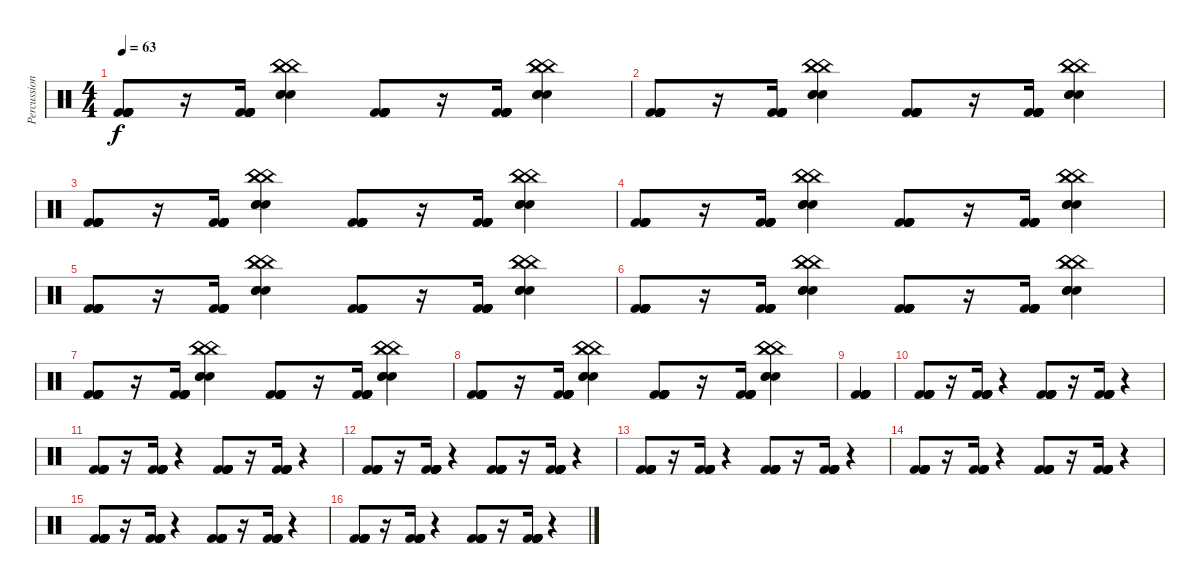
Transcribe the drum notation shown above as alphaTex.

\track ("Percussion" "Percussion") {instrument percussion}
\staff {score}
\articulation defaults
\ts (4 4)
\tempo 63
\clef neutral
\ks c
("Kick (hit) 2" "Kick (hit) 2" "Kick (hit) 2" "Kick (hit) 2" "Kick (hit) 2" "Kick (hit) 2").8{dy f} r.16 ("Kick (hit) 2" "Kick (hit) 2" "Kick (hit) 2" "Kick (hit) 2" "Kick (hit) 2" "Kick (hit) 2").16 ("China (hit)" "Snare (hit) 2" "China (hit)" "Snare (hit) 2" "China (hit)" "Snare (hit) 2").4 ("Kick (hit) 2" "Kick (hit) 2" "Kick (hit) 2" "Kick (hit) 2" "Kick (hit) 2" "Kick (hit) 2").8 r.16 ("Kick (hit) 2" "Kick (hit) 2" "Kick (hit) 2" "Kick (hit) 2" "Kick (hit) 2" "Kick (hit) 2").16 ("China (hit)" "Snare (hit) 2" "China (hit)" "Snare (hit) 2" "China (hit)" "Snare (hit) 2").4 |
("Kick (hit) 2" "Kick (hit) 2" "Kick (hit) 2" "Kick (hit) 2" "Kick (hit) 2" "Kick (hit) 2").8 r.16 ("Kick (hit) 2" "Kick (hit) 2" "Kick (hit) 2" "Kick (hit) 2" "Kick (hit) 2" "Kick (hit) 2").16 ("China (hit)" "Snare (hit) 2" "China (hit)" "Snare (hit) 2" "China (hit)" "Snare (hit) 2").4 ("Kick (hit) 2" "Kick (hit) 2" "Kick (hit) 2" "Kick (hit) 2" "Kick (hit) 2" "Kick (hit) 2").8 r.16 ("Kick (hit) 2" "Kick (hit) 2" "Kick (hit) 2" "Kick (hit) 2" "Kick (hit) 2" "Kick (hit) 2").16 ("China (hit)" "Snare (hit) 2" "China (hit)" "Snare (hit) 2" "China (hit)" "Snare (hit) 2").4 |
("Kick (hit) 2" "Kick (hit) 2" "Kick (hit) 2" "Kick (hit) 2" "Kick (hit) 2" "Kick (hit) 2").8 r.16 ("Kick (hit) 2" "Kick (hit) 2" "Kick (hit) 2" "Kick (hit) 2" "Kick (hit) 2" "Kick (hit) 2").16 ("China (hit)" "Snare (hit) 2" "China (hit)" "Snare (hit) 2" "China (hit)" "Snare (hit) 2").4 ("Kick (hit) 2" "Kick (hit) 2" "Kick (hit) 2" "Kick (hit) 2" "Kick (hit) 2" "Kick (hit) 2").8 r.16 ("Kick (hit) 2" "Kick (hit) 2" "Kick (hit) 2" "Kick (hit) 2" "Kick (hit) 2" "Kick (hit) 2").16 ("China (hit)" "Snare (hit) 2" "China (hit)" "Snare (hit) 2" "China (hit)" "Snare (hit) 2").4 |
("Kick (hit) 2" "Kick (hit) 2" "Kick (hit) 2" "Kick (hit) 2" "Kick (hit) 2" "Kick (hit) 2").8 r.16 ("Kick (hit) 2" "Kick (hit) 2" "Kick (hit) 2" "Kick (hit) 2" "Kick (hit) 2" "Kick (hit) 2").16 ("China (hit)" "Snare (hit) 2" "China (hit)" "Snare (hit) 2" "China (hit)" "Snare (hit) 2").4 ("Kick (hit) 2" "Kick (hit) 2" "Kick (hit) 2" "Kick (hit) 2" "Kick (hit) 2" "Kick (hit) 2").8 r.16 ("Kick (hit) 2" "Kick (hit) 2" "Kick (hit) 2" "Kick (hit) 2" "Kick (hit) 2" "Kick (hit) 2").16 ("China (hit)" "Snare (hit) 2" "China (hit)" "Snare (hit) 2" "China (hit)" "Snare (hit) 2").4 |
("Kick (hit) 2" "Kick (hit) 2" "Kick (hit) 2" "Kick (hit) 2" "Kick (hit) 2" "Kick (hit) 2").8 r.16 ("Kick (hit) 2" "Kick (hit) 2" "Kick (hit) 2" "Kick (hit) 2" "Kick (hit) 2" "Kick (hit) 2").16 ("China (hit)" "Snare (hit) 2" "China (hit)" "Snare (hit) 2" "China (hit)" "Snare (hit) 2").4 ("Kick (hit) 2" "Kick (hit) 2" "Kick (hit) 2" "Kick (hit) 2" "Kick (hit) 2" "Kick (hit) 2").8 r.16 ("Kick (hit) 2" "Kick (hit) 2" "Kick (hit) 2" "Kick (hit) 2" "Kick (hit) 2" "Kick (hit) 2").16 ("China (hit)" "Snare (hit) 2" "China (hit)" "Snare (hit) 2" "China (hit)" "Snare (hit) 2").4 |
("Kick (hit) 2" "Kick (hit) 2" "Kick (hit) 2" "Kick (hit) 2" "Kick (hit) 2" "Kick (hit) 2").8 r.16 ("Kick (hit) 2" "Kick (hit) 2" "Kick (hit) 2" "Kick (hit) 2" "Kick (hit) 2" "Kick (hit) 2").16 ("China (hit)" "Snare (hit) 2" "China (hit)" "Snare (hit) 2" "China (hit)" "Snare (hit) 2").4 ("Kick (hit) 2" "Kick (hit) 2" "Kick (hit) 2" "Kick (hit) 2" "Kick (hit) 2" "Kick (hit) 2").8 r.16 ("Kick (hit) 2" "Kick (hit) 2" "Kick (hit) 2" "Kick (hit) 2" "Kick (hit) 2" "Kick (hit) 2").16 ("China (hit)" "Snare (hit) 2" "China (hit)" "Snare (hit) 2" "China (hit)" "Snare (hit) 2").4 |
("Kick (hit) 2" "Kick (hit) 2" "Kick (hit) 2" "Kick (hit) 2" "Kick (hit) 2" "Kick (hit) 2").8 r.16 ("Kick (hit) 2" "Kick (hit) 2" "Kick (hit) 2" "Kick (hit) 2" "Kick (hit) 2" "Kick (hit) 2").16 ("China (hit)" "Snare (hit) 2" "China (hit)" "Snare (hit) 2" "China (hit)" "Snare (hit) 2").4 ("Kick (hit) 2" "Kick (hit) 2" "Kick (hit) 2" "Kick (hit) 2" "Kick (hit) 2" "Kick (hit) 2").8 r.16 ("Kick (hit) 2" "Kick (hit) 2" "Kick (hit) 2" "Kick (hit) 2" "Kick (hit) 2" "Kick (hit) 2").16 ("China (hit)" "Snare (hit) 2" "China (hit)" "Snare (hit) 2" "China (hit)" "Snare (hit) 2").4 |
("Kick (hit) 2" "Kick (hit) 2" "Kick (hit) 2" "Kick (hit) 2" "Kick (hit) 2" "Kick (hit) 2").8 r.16 ("Kick (hit) 2" "Kick (hit) 2" "Kick (hit) 2" "Kick (hit) 2" "Kick (hit) 2" "Kick (hit) 2").16 ("China (hit)" "Snare (hit) 2" "China (hit)" "Snare (hit) 2" "China (hit)" "Snare (hit) 2").4 ("Kick (hit) 2" "Kick (hit) 2" "Kick (hit) 2" "Kick (hit) 2" "Kick (hit) 2" "Kick (hit) 2").8 r.16 ("Kick (hit) 2" "Kick (hit) 2" "Kick (hit) 2" "Kick (hit) 2" "Kick (hit) 2" "Kick (hit) 2").16 ("China (hit)" "Snare (hit) 2" "China (hit)" "Snare (hit) 2" "China (hit)" "Snare (hit) 2").4 |
("Kick (hit) 2" "Kick (hit) 2" "Kick (hit) 2" "Kick (hit) 2" "Kick (hit) 2" "Kick (hit) 2").4 |
("Kick (hit) 2" "Kick (hit) 2" "Kick (hit) 2" "Kick (hit) 2" "Kick (hit) 2" "Kick (hit) 2").8 r.16 ("Kick (hit) 2" "Kick (hit) 2" "Kick (hit) 2" "Kick (hit) 2" "Kick (hit) 2" "Kick (hit) 2").16 r.4 ("Kick (hit) 2" "Kick (hit) 2" "Kick (hit) 2" "Kick (hit) 2" "Kick (hit) 2" "Kick (hit) 2").8 r.16 ("Kick (hit) 2" "Kick (hit) 2" "Kick (hit) 2" "Kick (hit) 2" "Kick (hit) 2" "Kick (hit) 2").16 r.4 |
("Kick (hit) 2" "Kick (hit) 2" "Kick (hit) 2" "Kick (hit) 2" "Kick (hit) 2" "Kick (hit) 2").8 r.16 ("Kick (hit) 2" "Kick (hit) 2" "Kick (hit) 2" "Kick (hit) 2" "Kick (hit) 2" "Kick (hit) 2").16 r.4 ("Kick (hit) 2" "Kick (hit) 2" "Kick (hit) 2" "Kick (hit) 2" "Kick (hit) 2" "Kick (hit) 2").8 r.16 ("Kick (hit) 2" "Kick (hit) 2" "Kick (hit) 2" "Kick (hit) 2" "Kick (hit) 2" "Kick (hit) 2").16 r.4 |
("Kick (hit) 2" "Kick (hit) 2" "Kick (hit) 2" "Kick (hit) 2" "Kick (hit) 2" "Kick (hit) 2").8 r.16 ("Kick (hit) 2" "Kick (hit) 2" "Kick (hit) 2" "Kick (hit) 2" "Kick (hit) 2" "Kick (hit) 2").16 r.4 ("Kick (hit) 2" "Kick (hit) 2" "Kick (hit) 2" "Kick (hit) 2" "Kick (hit) 2" "Kick (hit) 2").8 r.16 ("Kick (hit) 2" "Kick (hit) 2" "Kick (hit) 2" "Kick (hit) 2" "Kick (hit) 2" "Kick (hit) 2").16 r.4 |
("Kick (hit) 2" "Kick (hit) 2" "Kick (hit) 2" "Kick (hit) 2" "Kick (hit) 2" "Kick (hit) 2").8 r.16 ("Kick (hit) 2" "Kick (hit) 2" "Kick (hit) 2" "Kick (hit) 2" "Kick (hit) 2" "Kick (hit) 2").16 r.4 ("Kick (hit) 2" "Kick (hit) 2" "Kick (hit) 2" "Kick (hit) 2" "Kick (hit) 2" "Kick (hit) 2").8 r.16 ("Kick (hit) 2" "Kick (hit) 2" "Kick (hit) 2" "Kick (hit) 2" "Kick (hit) 2" "Kick (hit) 2").16 r.4 |
("Kick (hit) 2" "Kick (hit) 2" "Kick (hit) 2" "Kick (hit) 2" "Kick (hit) 2" "Kick (hit) 2").8 r.16 ("Kick (hit) 2" "Kick (hit) 2" "Kick (hit) 2" "Kick (hit) 2" "Kick (hit) 2" "Kick (hit) 2").16 r.4 ("Kick (hit) 2" "Kick (hit) 2" "Kick (hit) 2" "Kick (hit) 2" "Kick (hit) 2" "Kick (hit) 2").8 r.16 ("Kick (hit) 2" "Kick (hit) 2" "Kick (hit) 2" "Kick (hit) 2" "Kick (hit) 2" "Kick (hit) 2").16 r.4 |
("Kick (hit) 2" "Kick (hit) 2" "Kick (hit) 2" "Kick (hit) 2" "Kick (hit) 2" "Kick (hit) 2").8 r.16 ("Kick (hit) 2" "Kick (hit) 2" "Kick (hit) 2" "Kick (hit) 2" "Kick (hit) 2" "Kick (hit) 2").16 r.4 ("Kick (hit) 2" "Kick (hit) 2" "Kick (hit) 2" "Kick (hit) 2" "Kick (hit) 2" "Kick (hit) 2").8 r.16 ("Kick (hit) 2" "Kick (hit) 2" "Kick (hit) 2" "Kick (hit) 2" "Kick (hit) 2" "Kick (hit) 2").16 r.4 |
("Kick (hit) 2" "Kick (hit) 2" "Kick (hit) 2" "Kick (hit) 2" "Kick (hit) 2" "Kick (hit) 2").8 r.16 ("Kick (hit) 2" "Kick (hit) 2" "Kick (hit) 2" "Kick (hit) 2" "Kick (hit) 2" "Kick (hit) 2").16 r.4 ("Kick (hit) 2" "Kick (hit) 2" "Kick (hit) 2" "Kick (hit) 2" "Kick (hit) 2" "Kick (hit) 2").8 r.16 ("Kick (hit) 2" "Kick (hit) 2" "Kick (hit) 2" "Kick (hit) 2" "Kick (hit) 2" "Kick (hit) 2").16 r.4
